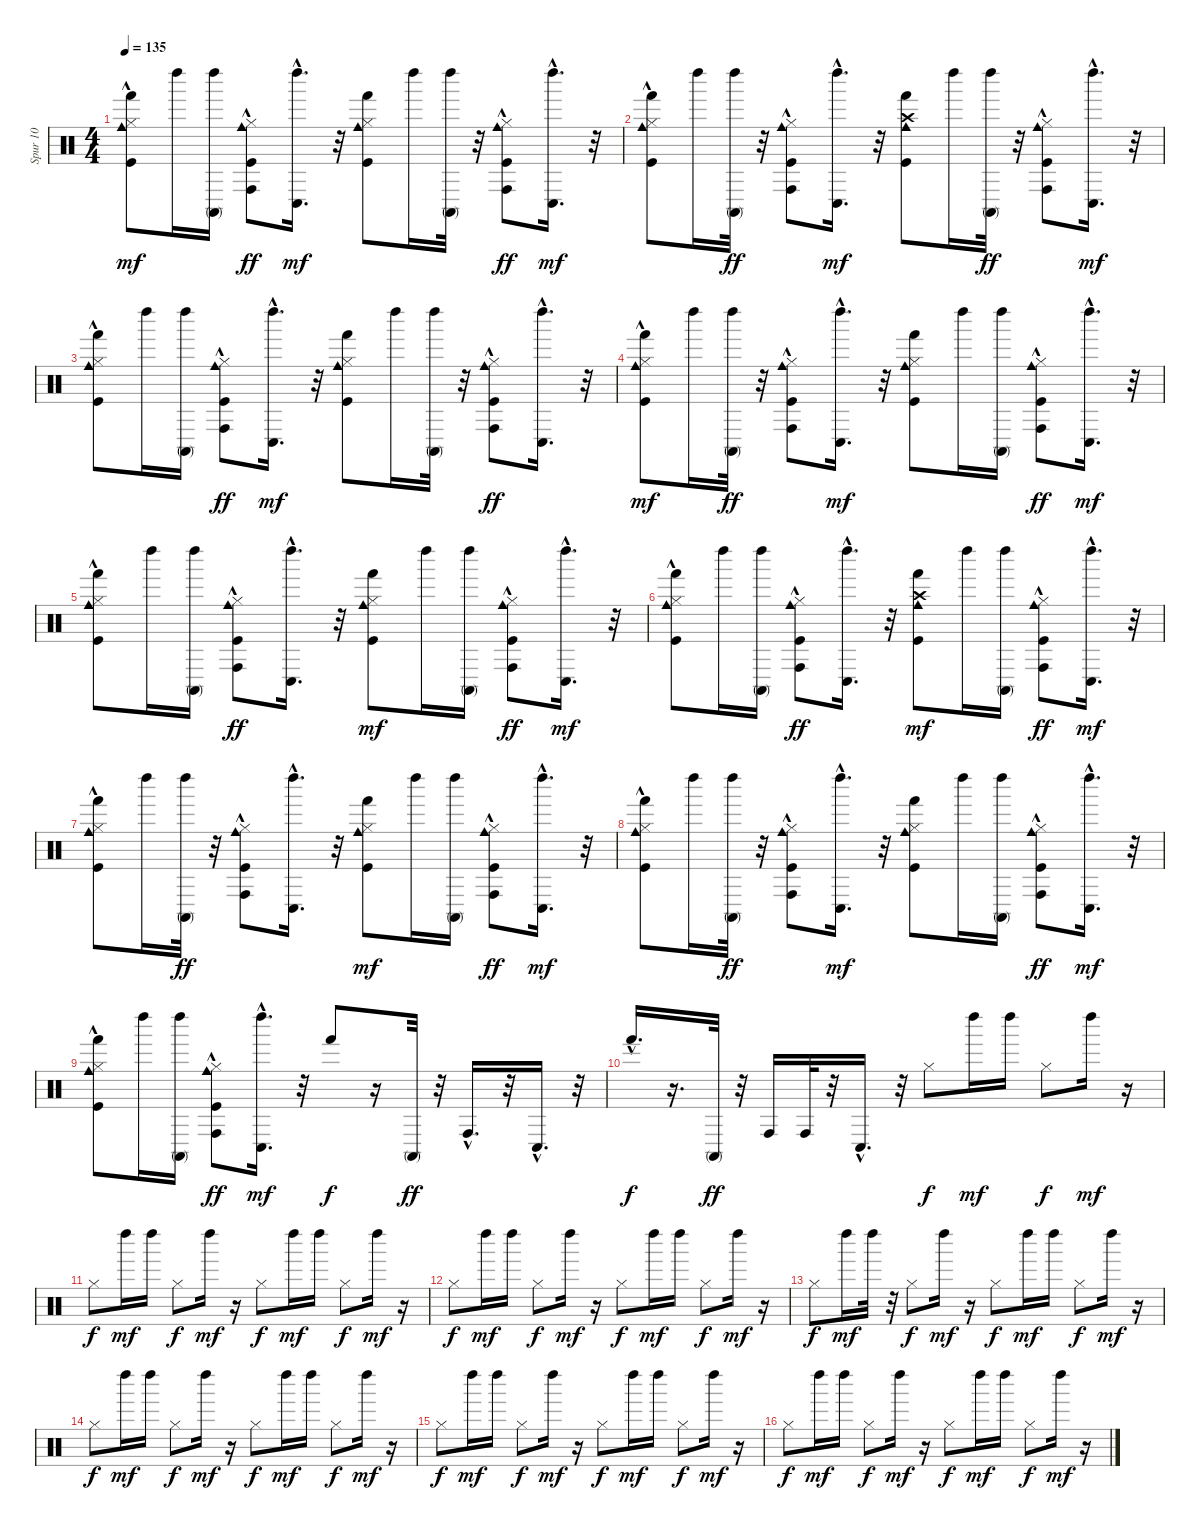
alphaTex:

\track ("Spur 10" "Spur 10") {instrument percussion}
\staff {score}
\articulation defaults
\ts (4 4)
\tempo 135
\clef neutral
\ks c
("Kick (hit)" "Hi-Hat (closed)" "Cowbell medium (hit)" "Hand (hit)"{hac}).8{dy mf} "Left Maraca (hit)".16 ("Conga high (mute)" "Left Maraca (hit)").16 ("Hi-Hat (closed)" "Kick (hit)"{hac} "Cowbell medium (hit)" "Conga high (hit)"{hac}).8{dy ff} ("Conga low (hit)"{hac} "Left Maraca (hit)").16{d dy mf} r.32 ("Hi-Hat (closed)" "Kick (hit)" "Cowbell medium (hit)" "Hand (hit)").8 "Left Maraca (hit)".16 ("Conga high (mute)" "Left Maraca (hit)").32 r.32 ("Kick (hit)" "Hi-Hat (closed)" "Cowbell medium (hit)" "Conga high (hit)"{hac}).8{dy ff} ("Conga low (hit)"{hac} "Left Maraca (hit)").16{d dy mf} r.32 |
("Kick (hit)" "Hi-Hat (closed)" "Cowbell medium (hit)" "Hand (hit)"{hac}).8 "Left Maraca (hit)".16 ("Left Maraca (hit)" "Conga high (mute)").32{dy ff} r.32 ("Hi-Hat (closed)" "Kick (hit)"{hac} "Cowbell medium (hit)" "Conga high (hit)"{hac}).8 ("Conga low (hit)"{hac} "Left Maraca (hit)").16{d dy mf} r.32 ("Crash high (hit)" "Kick (hit)" "Cowbell medium (hit)" "Hand (hit)").8 "Left Maraca (hit)".16 ("Left Maraca (hit)" "Conga high (mute)").32{dy ff} r.32 ("Kick (hit)" "Hi-Hat (closed)" "Cowbell medium (hit)" "Conga high (hit)"{hac}).8 ("Conga low (hit)"{hac} "Left Maraca (hit)").16{d dy mf} r.32 |
("Hi-Hat (closed)" "Kick (hit)" "Cowbell medium (hit)" "Hand (hit)"{hac}).8 "Left Maraca (hit)".16 ("Conga high (mute)" "Left Maraca (hit)").16 ("Kick (hit)"{hac} "Hi-Hat (closed)" "Cowbell medium (hit)" "Conga high (hit)"{hac}).8{dy ff} ("Conga low (hit)"{hac} "Left Maraca (hit)").16{d dy mf} r.32 ("Kick (hit)" "Hi-Hat (closed)" "Cowbell medium (hit)" "Hand (hit)").8 "Left Maraca (hit)".16 ("Conga high (mute)" "Left Maraca (hit)").32 r.32 ("Hi-Hat (closed)" "Kick (hit)" "Cowbell medium (hit)" "Conga high (hit)"{hac}).8{dy ff} ("Left Maraca (hit)" "Conga low (hit)"{hac}).16{d} r.32 |
("Kick (hit)" "Hi-Hat (closed)" "Cowbell medium (hit)" "Hand (hit)"{hac}).8{dy mf} "Left Maraca (hit)".16 ("Left Maraca (hit)" "Conga high (mute)").32{dy ff} r.32 ("Kick (hit)"{hac} "Hi-Hat (closed)" "Cowbell medium (hit)" "Conga high (hit)"{hac}).8 ("Conga low (hit)"{hac} "Left Maraca (hit)").16{d dy mf} r.32 ("Kick (hit)" "Hi-Hat (closed)" "Cowbell medium (hit)" "Hand (hit)").8 "Left Maraca (hit)".16 ("Conga high (mute)" "Left Maraca (hit)").16 ("Kick (hit)" "Hi-Hat (closed)" "Cowbell medium (hit)" "Conga high (hit)"{hac}).8{dy ff} ("Conga low (hit)"{hac} "Left Maraca (hit)").16{d dy mf} r.32 |
("Kick (hit)" "Hi-Hat (closed)" "Cowbell medium (hit)" "Hand (hit)"{hac}).8 "Left Maraca (hit)".16 ("Conga high (mute)" "Left Maraca (hit)").16 ("Kick (hit)"{hac} "Hi-Hat (closed)" "Cowbell medium (hit)" "Conga high (hit)"{hac}).8{dy ff} ("Left Maraca (hit)" "Conga low (hit)"{hac}).16{d} r.32 ("Kick (hit)" "Hi-Hat (closed)" "Cowbell medium (hit)" "Hand (hit)").8{dy mf} "Left Maraca (hit)".16 ("Conga high (mute)" "Left Maraca (hit)").16 ("Kick (hit)" "Hi-Hat (closed)" "Cowbell medium (hit)" "Conga high (hit)"{hac}).8{dy ff} ("Conga low (hit)"{hac} "Left Maraca (hit)").16{d dy mf} r.32 |
("Kick (hit)" "Hi-Hat (closed)" "Cowbell medium (hit)" "Hand (hit)"{hac}).8 "Left Maraca (hit)".16 ("Conga high (mute)" "Left Maraca (hit)").16 ("Kick (hit)"{hac} "Hi-Hat (closed)" "Cowbell medium (hit)" "Conga high (hit)"{hac}).8{dy ff} ("Left Maraca (hit)" "Conga low (hit)"{hac}).16{d} r.32 ("Crash high (hit)" "Kick (hit)" "Cowbell medium (hit)" "Hand (hit)").8{dy mf} "Left Maraca (hit)".16 ("Conga high (mute)" "Left Maraca (hit)").16 ("Kick (hit)" "Hi-Hat (closed)" "Cowbell medium (hit)" "Conga high (hit)"{hac}).8{dy ff} ("Conga low (hit)"{hac} "Left Maraca (hit)").16{d dy mf} r.32 |
("Kick (hit)" "Hi-Hat (closed)" "Cowbell medium (hit)" "Hand (hit)"{hac}).8 "Left Maraca (hit)".16 ("Left Maraca (hit)" "Conga high (mute)").32{dy ff} r.32 ("Kick (hit)"{hac} "Hi-Hat (closed)" "Cowbell medium (hit)" "Conga high (hit)"{hac}).8 ("Left Maraca (hit)" "Conga low (hit)"{hac}).16{d} r.32 ("Kick (hit)" "Hi-Hat (closed)" "Cowbell medium (hit)" "Hand (hit)").8{dy mf} "Left Maraca (hit)".16 ("Conga high (mute)" "Left Maraca (hit)").16 ("Kick (hit)" "Hi-Hat (closed)" "Cowbell medium (hit)" "Conga high (hit)"{hac}).8{dy ff} ("Conga low (hit)"{hac} "Left Maraca (hit)").16{d dy mf} r.32 |
("Kick (hit)" "Hi-Hat (closed)" "Cowbell medium (hit)" "Hand (hit)"{hac}).8 "Left Maraca (hit)".16 ("Left Maraca (hit)" "Conga high (mute)").32{dy ff} r.32 ("Kick (hit)"{hac} "Hi-Hat (closed)" "Cowbell medium (hit)" "Conga high (hit)"{hac}).8 ("Conga low (hit)"{hac} "Left Maraca (hit)").16{d dy mf} r.32 ("Kick (hit)" "Hi-Hat (closed)" "Cowbell medium (hit)" "Hand (hit)").8 "Left Maraca (hit)".16 ("Conga high (mute)" "Left Maraca (hit)").16 ("Hi-Hat (closed)" "Kick (hit)" "Cowbell medium (hit)" "Conga high (hit)"{hac}).8{dy ff} ("Conga low (hit)"{hac} "Left Maraca (hit)").16{d dy mf} r.32 |
("Kick (hit)" "Hi-Hat (closed)" "Cowbell medium (hit)" "Hand (hit)"{hac}).8 "Left Maraca (hit)".16 ("Conga high (mute)" "Left Maraca (hit)").16 ("Kick (hit)"{hac} "Hi-Hat (closed)" "Cowbell medium (hit)" "Conga high (hit)"{hac}).8{dy ff} ("Conga low (hit)"{hac} "Left Maraca (hit)").16{d dy mf} r.32 "Hand (hit)".8{dy f} r.16 "Conga high (mute)".32{dy ff} r.32 "Conga high (hit)"{hac}.16{d} r.32 "Conga low (hit)"{hac}.16{d} r.32 |
"Hand (hit)"{hac}.16{d dy f} r.16{d} "Conga high (mute)".32{dy ff} r.32 "Conga high (hit)".16 "Conga high (hit)".32 r.32 "Conga low (hit)"{hac}.16{d} r.32 "Hi-Hat (closed)".8{dy f} "Left Maraca (hit)".16{dy mf} "Left Maraca (hit)".16 "Hi-Hat (closed)".8{dy f} "Left Maraca (hit)".16{dy mf} r.16 |
"Hi-Hat (closed)".8{dy f} "Left Maraca (hit)".16{dy mf} "Left Maraca (hit)".16 "Hi-Hat (closed)".8{dy f} "Left Maraca (hit)".16{dy mf} r.16 "Hi-Hat (closed)".8{dy f} "Left Maraca (hit)".16{dy mf} "Left Maraca (hit)".16 "Hi-Hat (closed)".8{dy f} "Left Maraca (hit)".16{dy mf} r.16 |
"Hi-Hat (closed)".8{dy f} "Left Maraca (hit)".16{dy mf} "Left Maraca (hit)".16 "Hi-Hat (closed)".8{dy f} "Left Maraca (hit)".16{dy mf} r.16 "Hi-Hat (closed)".8{dy f} "Left Maraca (hit)".16{dy mf} "Left Maraca (hit)".16 "Hi-Hat (closed)".8{dy f} "Left Maraca (hit)".16{dy mf} r.16 |
"Hi-Hat (closed)".8{dy f} "Left Maraca (hit)".16{dy mf} "Left Maraca (hit)".32 r.32 "Hi-Hat (closed)".8{dy f} "Left Maraca (hit)".16{dy mf} r.16 "Hi-Hat (closed)".8{dy f} "Left Maraca (hit)".16{dy mf} "Left Maraca (hit)".16 "Hi-Hat (closed)".8{dy f} "Left Maraca (hit)".16{dy mf} r.16 |
"Hi-Hat (closed)".8{dy f} "Left Maraca (hit)".16{dy mf} "Left Maraca (hit)".16 "Hi-Hat (closed)".8{dy f} "Left Maraca (hit)".16{dy mf} r.16 "Hi-Hat (closed)".8{dy f} "Left Maraca (hit)".16{dy mf} "Left Maraca (hit)".16 "Hi-Hat (closed)".8{dy f} "Left Maraca (hit)".16{dy mf} r.16 |
"Hi-Hat (closed)".8{dy f} "Left Maraca (hit)".16{dy mf} "Left Maraca (hit)".16 "Hi-Hat (closed)".8{dy f} "Left Maraca (hit)".16{dy mf} r.16 "Hi-Hat (closed)".8{dy f} "Left Maraca (hit)".16{dy mf} "Left Maraca (hit)".16 "Hi-Hat (closed)".8{dy f} "Left Maraca (hit)".16{dy mf} r.16 |
"Hi-Hat (closed)".8{dy f} "Left Maraca (hit)".16{dy mf} "Left Maraca (hit)".16 "Hi-Hat (closed)".8{dy f} "Left Maraca (hit)".16{dy mf} r.16 "Hi-Hat (closed)".8{dy f} "Left Maraca (hit)".16{dy mf} "Left Maraca (hit)".16 "Hi-Hat (closed)".8{dy f} "Left Maraca (hit)".16{dy mf} r.16
